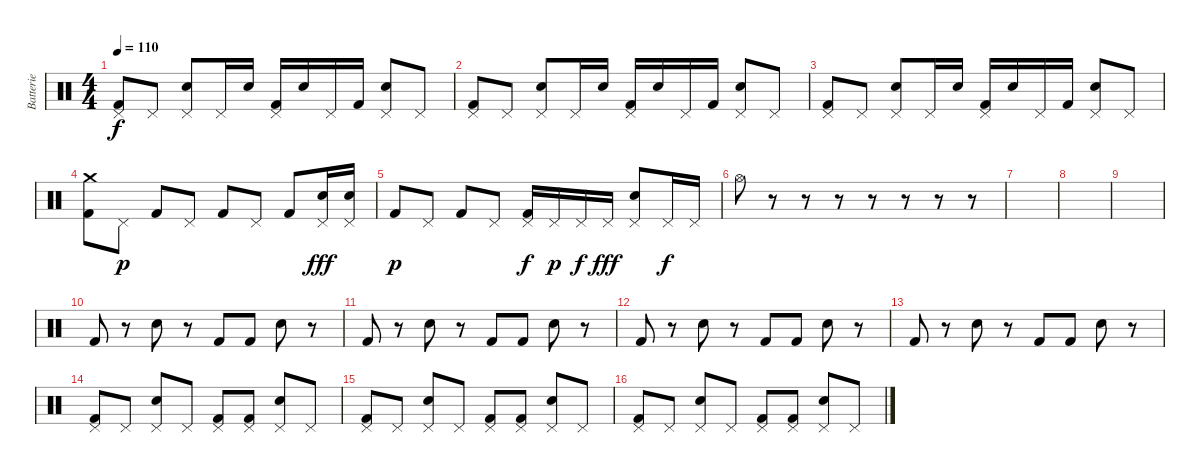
\track ("Batterie" "Batterie") {instrument percussion}
\staff {score}
\articulation defaults
\ts (4 4)
\tempo 110
\clef neutral
\ks c
("Pedal Hi-Hat (hit)" "Kick (hit) 2").8{dy f} "Pedal Hi-Hat (hit)".8 ("Pedal Hi-Hat (hit)" "Electric Snare (hit)").8 "Pedal Hi-Hat (hit)".16 "Electric Snare (hit)".16 ("Pedal Hi-Hat (hit)" "Kick (hit) 2").16 "Electric Snare (hit)".16 "Pedal Hi-Hat (hit)".16 "Kick (hit) 2".16 ("Pedal Hi-Hat (hit)" "Electric Snare (hit)").8 "Pedal Hi-Hat (hit)".8 |
("Pedal Hi-Hat (hit)" "Kick (hit) 2").8 "Pedal Hi-Hat (hit)".8 ("Pedal Hi-Hat (hit)" "Electric Snare (hit)").8 "Pedal Hi-Hat (hit)".16 "Electric Snare (hit)".16 ("Pedal Hi-Hat (hit)" "Kick (hit) 2").16 "Electric Snare (hit)".16 "Pedal Hi-Hat (hit)".16 "Kick (hit) 2".16 ("Pedal Hi-Hat (hit)" "Electric Snare (hit)").8 "Pedal Hi-Hat (hit)".8 |
("Pedal Hi-Hat (hit)" "Kick (hit) 2").8 "Pedal Hi-Hat (hit)".8 ("Pedal Hi-Hat (hit)" "Electric Snare (hit)").8 "Pedal Hi-Hat (hit)".16 "Electric Snare (hit)".16 ("Pedal Hi-Hat (hit)" "Kick (hit) 2").16 "Electric Snare (hit)".16 "Pedal Hi-Hat (hit)".16 "Kick (hit) 2".16 ("Pedal Hi-Hat (hit)" "Electric Snare (hit)").8 "Pedal Hi-Hat (hit)".8 |
("Crash medium (hit)" "Kick (hit) 2").8 "Pedal Hi-Hat (hit)".8{dy p} "Kick (hit) 2".8 "Pedal Hi-Hat (hit)".8 "Kick (hit) 2".8 "Pedal Hi-Hat (hit)".8 "Kick (hit) 2".8 ("Pedal Hi-Hat (hit)" "Electric Snare (hit)").16{dy fff} ("Pedal Hi-Hat (hit)" "Electric Snare (hit)").16 |
"Kick (hit) 2".8{dy p} "Pedal Hi-Hat (hit)".8 "Kick (hit) 2".8 "Pedal Hi-Hat (hit)".8 ("Pedal Hi-Hat (hit)" "Kick (hit) 2").16{dy f} "Pedal Hi-Hat (hit)".16{dy p} "Pedal Hi-Hat (hit)".16{dy f} "Pedal Hi-Hat (hit)".16{dy fff} ("Pedal Hi-Hat (hit)" "Electric Snare (hit)").8 "Pedal Hi-Hat (hit)".16{dy f} "Pedal Hi-Hat (hit)".16 |
"Hi-Hat (open)".8 r.8 r.8 r.8 r.8 r.8 r.8 r.8 |
|
|
|
"Kick (hit) 2".8 r.8 "Electric Snare (hit)".8 r.8 "Kick (hit) 2".8 "Kick (hit) 2".8 "Electric Snare (hit)".8 r.8 |
"Kick (hit) 2".8 r.8 "Electric Snare (hit)".8 r.8 "Kick (hit) 2".8 "Kick (hit) 2".8 "Electric Snare (hit)".8 r.8 |
"Kick (hit) 2".8 r.8 "Electric Snare (hit)".8 r.8 "Kick (hit) 2".8 "Kick (hit) 2".8 "Electric Snare (hit)".8 r.8 |
"Kick (hit) 2".8 r.8 "Electric Snare (hit)".8 r.8 "Kick (hit) 2".8 "Kick (hit) 2".8 "Electric Snare (hit)".8 r.8 |
("Kick (hit) 2" "Pedal Hi-Hat (hit)").8 "Pedal Hi-Hat (hit)".8 ("Electric Snare (hit)" "Pedal Hi-Hat (hit)").8 "Pedal Hi-Hat (hit)".8 ("Kick (hit) 2" "Pedal Hi-Hat (hit)").8 ("Kick (hit) 2" "Pedal Hi-Hat (hit)").8 ("Electric Snare (hit)" "Pedal Hi-Hat (hit)").8 "Pedal Hi-Hat (hit)".8 |
("Kick (hit) 2" "Pedal Hi-Hat (hit)").8 "Pedal Hi-Hat (hit)".8 ("Electric Snare (hit)" "Pedal Hi-Hat (hit)").8 "Pedal Hi-Hat (hit)".8 ("Kick (hit) 2" "Pedal Hi-Hat (hit)").8 ("Kick (hit) 2" "Pedal Hi-Hat (hit)").8 ("Electric Snare (hit)" "Pedal Hi-Hat (hit)").8 "Pedal Hi-Hat (hit)".8 |
("Kick (hit) 2" "Pedal Hi-Hat (hit)").8 "Pedal Hi-Hat (hit)".8 ("Electric Snare (hit)" "Pedal Hi-Hat (hit)").8 "Pedal Hi-Hat (hit)".8 ("Kick (hit) 2" "Pedal Hi-Hat (hit)").8 ("Kick (hit) 2" "Pedal Hi-Hat (hit)").8 ("Electric Snare (hit)" "Pedal Hi-Hat (hit)").8 "Pedal Hi-Hat (hit)".8
